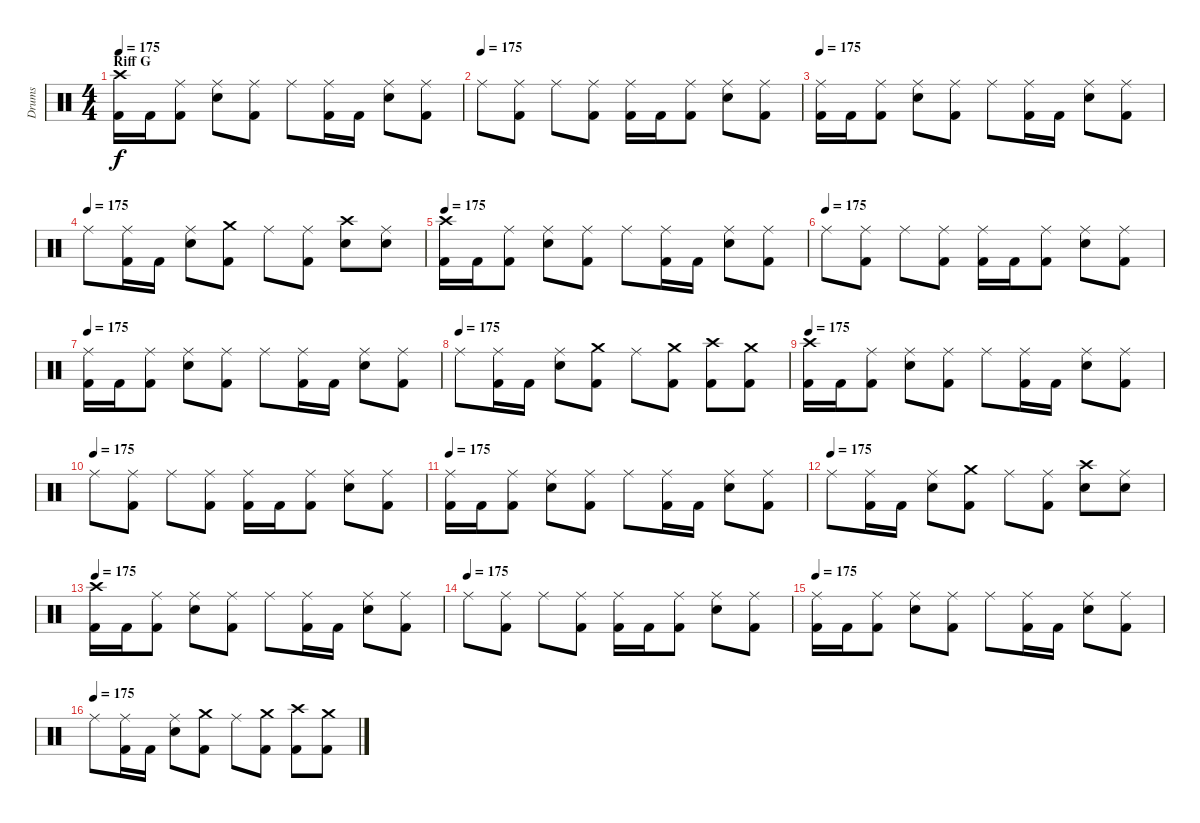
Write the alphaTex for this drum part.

\track ("Drums" "Drums") {instrument percussion}
\staff {score}
\articulation defaults
\ts (4 4)
\section ("" "Riff G")
\tempo 175
\clef neutral
\ks c
("Crash high (hit)" "Kick (hit) 2").16{dy f} "Kick (hit) 2".16 ("Ride (middle)" "Kick (hit) 2").8 ("Ride (middle)" "Electric Snare (hit)").8 ("Ride (middle)" "Kick (hit) 2").8 "Ride (middle)".8 ("Ride (middle)" "Kick (hit) 2").16 "Kick (hit) 2".16 ("Ride (middle)" "Electric Snare (hit)").8 ("Ride (middle)" "Kick (hit) 2").8 |
\tempo (175)
"Ride (middle)".8 ("Ride (middle)" "Kick (hit) 2").8 "Ride (middle)".8 ("Ride (middle)" "Kick (hit) 2").8 ("Ride (middle)" "Kick (hit) 2").16 "Kick (hit) 2".16 ("Ride (middle)" "Kick (hit) 2").8 ("Ride (middle)" "Electric Snare (hit)").8 ("Ride (middle)" "Kick (hit) 2").8 |
\tempo 175
("Ride (middle)" "Kick (hit) 2").16 "Kick (hit) 2".16 ("Ride (middle)" "Kick (hit) 2").8 ("Ride (middle)" "Electric Snare (hit)").8 ("Ride (middle)" "Kick (hit) 2").8 "Ride (middle)".8 ("Ride (middle)" "Kick (hit) 2").16 "Kick (hit) 2".16 ("Ride (middle)" "Electric Snare (hit)").8 ("Ride (middle)" "Kick (hit) 2").8 |
\tempo (175)
"Ride (middle)".8 ("Ride (middle)" "Kick (hit) 2").16 "Kick (hit) 2".16 ("Ride (middle)" "Electric Snare (hit)").8 ("Crash medium (hit)" "Kick (hit) 2").8 "Ride (middle)".8 ("Ride (middle)" "Kick (hit) 2").8 ("Crash high (hit)" "Electric Snare (hit)").8 ("Ride (middle)" "Electric Snare (hit)").8 |
\tempo 175
("Crash high (hit)" "Kick (hit) 2").16 "Kick (hit) 2".16 ("Ride (middle)" "Kick (hit) 2").8 ("Ride (middle)" "Electric Snare (hit)").8 ("Ride (middle)" "Kick (hit) 2").8 "Ride (middle)".8 ("Ride (middle)" "Kick (hit) 2").16 "Kick (hit) 2".16 ("Ride (middle)" "Electric Snare (hit)").8 ("Ride (middle)" "Kick (hit) 2").8 |
\tempo (175)
"Ride (middle)".8 ("Ride (middle)" "Kick (hit) 2").8 "Ride (middle)".8 ("Ride (middle)" "Kick (hit) 2").8 ("Ride (middle)" "Kick (hit) 2").16 "Kick (hit) 2".16 ("Ride (middle)" "Kick (hit) 2").8 ("Ride (middle)" "Electric Snare (hit)").8 ("Ride (middle)" "Kick (hit) 2").8 |
\tempo 175
("Ride (middle)" "Kick (hit) 2").16 "Kick (hit) 2".16 ("Ride (middle)" "Kick (hit) 2").8 ("Ride (middle)" "Electric Snare (hit)").8 ("Ride (middle)" "Kick (hit) 2").8 "Ride (middle)".8 ("Ride (middle)" "Kick (hit) 2").16 "Kick (hit) 2".16 ("Ride (middle)" "Electric Snare (hit)").8 ("Ride (middle)" "Kick (hit) 2").8 |
\tempo (175)
"Ride (middle)".8 ("Ride (middle)" "Kick (hit) 2").16 "Kick (hit) 2".16 ("Ride (middle)" "Electric Snare (hit)").8 ("Crash medium (hit)" "Kick (hit) 2").8 "Ride (middle)".8 ("Crash medium (hit)" "Kick (hit) 2").8 ("Crash high (hit)" "Kick (hit) 2").8 ("Crash medium (hit)" "Kick (hit) 2").8 |
\tempo 175
("Crash high (hit)" "Kick (hit) 2").16 "Kick (hit) 2".16 ("Ride (middle)" "Kick (hit) 2").8 ("Ride (middle)" "Electric Snare (hit)").8 ("Ride (middle)" "Kick (hit) 2").8 "Ride (middle)".8 ("Ride (middle)" "Kick (hit) 2").16 "Kick (hit) 2".16 ("Ride (middle)" "Electric Snare (hit)").8 ("Ride (middle)" "Kick (hit) 2").8 |
\tempo (175)
"Ride (middle)".8 ("Ride (middle)" "Kick (hit) 2").8 "Ride (middle)".8 ("Ride (middle)" "Kick (hit) 2").8 ("Ride (middle)" "Kick (hit) 2").16 "Kick (hit) 2".16 ("Ride (middle)" "Kick (hit) 2").8 ("Ride (middle)" "Electric Snare (hit)").8 ("Ride (middle)" "Kick (hit) 2").8 |
\tempo 175
("Ride (middle)" "Kick (hit) 2").16 "Kick (hit) 2".16 ("Ride (middle)" "Kick (hit) 2").8 ("Ride (middle)" "Electric Snare (hit)").8 ("Ride (middle)" "Kick (hit) 2").8 "Ride (middle)".8 ("Ride (middle)" "Kick (hit) 2").16 "Kick (hit) 2".16 ("Ride (middle)" "Electric Snare (hit)").8 ("Ride (middle)" "Kick (hit) 2").8 |
\tempo (175)
"Ride (middle)".8 ("Ride (middle)" "Kick (hit) 2").16 "Kick (hit) 2".16 ("Ride (middle)" "Electric Snare (hit)").8 ("Crash medium (hit)" "Kick (hit) 2").8 "Ride (middle)".8 ("Ride (middle)" "Kick (hit) 2").8 ("Crash high (hit)" "Electric Snare (hit)").8 ("Ride (middle)" "Electric Snare (hit)").8 |
\tempo 175
("Crash high (hit)" "Kick (hit) 2").16 "Kick (hit) 2".16 ("Ride (middle)" "Kick (hit) 2").8 ("Ride (middle)" "Electric Snare (hit)").8 ("Ride (middle)" "Kick (hit) 2").8 "Ride (middle)".8 ("Ride (middle)" "Kick (hit) 2").16 "Kick (hit) 2".16 ("Ride (middle)" "Electric Snare (hit)").8 ("Ride (middle)" "Kick (hit) 2").8 |
\tempo (175)
"Ride (middle)".8 ("Ride (middle)" "Kick (hit) 2").8 "Ride (middle)".8 ("Ride (middle)" "Kick (hit) 2").8 ("Ride (middle)" "Kick (hit) 2").16 "Kick (hit) 2".16 ("Ride (middle)" "Kick (hit) 2").8 ("Ride (middle)" "Electric Snare (hit)").8 ("Ride (middle)" "Kick (hit) 2").8 |
\tempo 175
("Ride (middle)" "Kick (hit) 2").16 "Kick (hit) 2".16 ("Ride (middle)" "Kick (hit) 2").8 ("Ride (middle)" "Electric Snare (hit)").8 ("Ride (middle)" "Kick (hit) 2").8 "Ride (middle)".8 ("Ride (middle)" "Kick (hit) 2").16 "Kick (hit) 2".16 ("Ride (middle)" "Electric Snare (hit)").8 ("Ride (middle)" "Kick (hit) 2").8 |
\tempo (175)
"Ride (middle)".8 ("Ride (middle)" "Kick (hit) 2").16 "Kick (hit) 2".16 ("Ride (middle)" "Electric Snare (hit)").8 ("Crash medium (hit)" "Kick (hit) 2").8 "Ride (middle)".8 ("Crash medium (hit)" "Kick (hit) 2").8 ("Crash high (hit)" "Kick (hit) 2").8 ("Crash medium (hit)" "Kick (hit) 2").8
